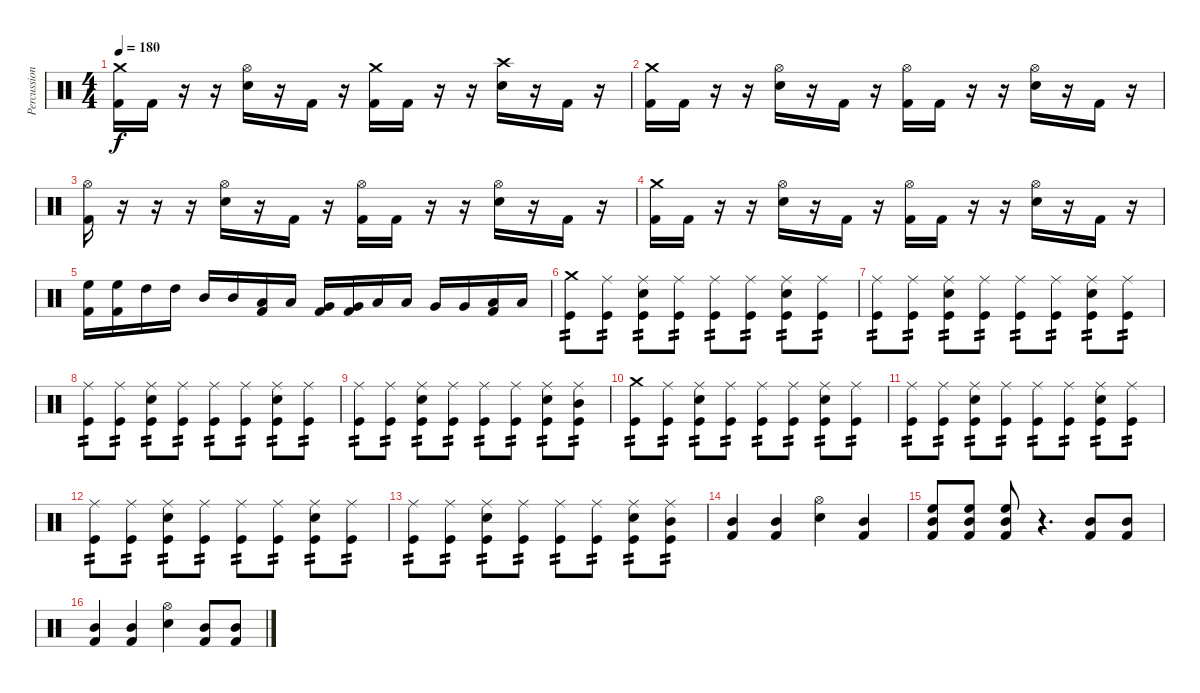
\track ("Percussions" "Percussion") {instrument percussion}
\staff {score}
\articulation defaults
\ts (4 4)
\tempo 180
\clef neutral
\ks c
("Kick (hit) 2" "Crash medium (hit)").16{dy f} "Kick (hit) 2".16 r.16 r.16 ("Snare (hit) 2" "Hi-Hat (open)").16 r.16 "Kick (hit) 2".16 r.16 ("Kick (hit) 2" "Crash medium (hit)").16 "Kick (hit) 2".16 r.16 r.16 ("Snare (hit) 2" "Crash high (hit)").16 r.16 "Kick (hit) 2".16 r.16 |
("Kick (hit) 2" "Crash medium (hit)").16 "Kick (hit) 2".16 r.16 r.16 ("Snare (hit) 2" "Hi-Hat (open)").16 r.16 "Kick (hit) 2".16 r.16 ("Kick (hit) 2" "Hi-Hat (open)").16 "Kick (hit) 2".16 r.16 r.16 ("Snare (hit) 2" "Hi-Hat (open)").16 r.16 "Kick (hit) 2".16 r.16 |
("Kick (hit) 2" "Hi-Hat (open)").16 r.16 r.16 r.16 ("Snare (hit) 2" "Hi-Hat (open)").16 r.16 "Kick (hit) 2".16 r.16 ("Kick (hit) 2" "Hi-Hat (open)").16 "Kick (hit) 2".16 r.16 r.16 ("Snare (hit) 2" "Hi-Hat (open)").16 r.16 "Kick (hit) 2".16 r.16 |
("Kick (hit) 2" "Crash medium (hit)").16 "Kick (hit) 2".16 r.16 r.16 ("Snare (hit) 2" "Hi-Hat (open)").16 r.16 "Kick (hit) 2".16 r.16 ("Kick (hit) 2" "Hi-Hat (open)").16 "Kick (hit) 2".16 r.16 r.16 ("Snare (hit) 2" "Hi-Hat (open)").16 r.16 "Kick (hit) 2".16 r.16 |
("Kick (hit) 2" "High Floor Tom (hit)").16 ("Kick (hit) 2" "High Floor Tom (hit)").16 "High Tom (hit)".16 "High Tom (hit)".16 "Mid Tom (hit)".16 "Mid Tom (hit)".16 ("Kick (hit) 2" "Low Tom (hit)").16 "Low Tom (hit)".16 ("Kick (hit) 2" "Very Low Tom (hit)").16 ("Kick (hit) 2" "Very Low Tom (hit)").16 "Low Floor Tom (hit)".16 "Low Floor Tom (hit)".16 "Very Low Tom (hit)".16 "Very Low Tom (hit)".16 ("Kick (hit) 2" "Low Tom (hit)").16 "Low Tom (hit)".16 |
("Crash medium (hit)" "Kick (hit)").8{tp 2} ("Ride (middle)" "Kick (hit)").8{tp 2} ("Ride (middle)" "Electric Snare (hit)" "Kick (hit)").8{tp 2} ("Ride (middle)" "Kick (hit)").8{tp 2} ("Ride (middle)" "Kick (hit)").8{tp 2} ("Ride (middle)" "Kick (hit)").8{tp 2} ("Ride (middle)" "Electric Snare (hit)" "Kick (hit)").8{tp 2} ("Ride (middle)" "Kick (hit)").8{tp 2} |
("Ride (middle)" "Kick (hit)").8{tp 2} ("Ride (middle)" "Kick (hit)").8{tp 2} ("Ride (middle)" "Electric Snare (hit)" "Kick (hit)").8{tp 2} ("Ride (middle)" "Kick (hit)").8{tp 2} ("Ride (middle)" "Kick (hit)").8{tp 2} ("Ride (middle)" "Kick (hit)").8{tp 2} ("Ride (middle)" "Electric Snare (hit)" "Kick (hit)").8{tp 2} ("Ride (middle)" "Kick (hit)").8{tp 2} |
("Ride (middle)" "Kick (hit)").8{tp 2} ("Ride (middle)" "Kick (hit)").8{tp 2} ("Ride (middle)" "Electric Snare (hit)" "Kick (hit)").8{tp 2} ("Ride (middle)" "Kick (hit)").8{tp 2} ("Ride (middle)" "Kick (hit)").8{tp 2} ("Ride (middle)" "Kick (hit)").8{tp 2} ("Ride (middle)" "Electric Snare (hit)" "Kick (hit)").8{tp 2} ("Ride (middle)" "Kick (hit)").8{tp 2} |
("Ride (middle)" "Kick (hit)").8{tp 2} ("Ride (middle)" "Kick (hit)").8{tp 2} ("Ride (middle)" "Electric Snare (hit)" "Kick (hit)").8{tp 2} ("Ride (middle)" "Kick (hit)").8{tp 2} ("Ride (middle)" "Kick (hit)").8{tp 2} ("Ride (middle)" "Kick (hit)").8{tp 2} ("Ride (middle)" "Electric Snare (hit)" "Kick (hit)").8{tp 2} ("Ride (middle)" "Mid Tom (hit)" "Kick (hit)").8{tp 2} |
("Crash medium (hit)" "Kick (hit)").8{tp 2} ("Ride (middle)" "Kick (hit)").8{tp 2} ("Ride (middle)" "Electric Snare (hit)" "Kick (hit)").8{tp 2} ("Ride (middle)" "Kick (hit)").8{tp 2} ("Ride (middle)" "Kick (hit)").8{tp 2} ("Ride (middle)" "Kick (hit)").8{tp 2} ("Ride (middle)" "Electric Snare (hit)" "Kick (hit)").8{tp 2} ("Ride (middle)" "Kick (hit)").8{tp 2} |
("Ride (middle)" "Kick (hit)").8{tp 2} ("Ride (middle)" "Kick (hit)").8{tp 2} ("Ride (middle)" "Electric Snare (hit)" "Kick (hit)").8{tp 2} ("Ride (middle)" "Kick (hit)").8{tp 2} ("Ride (middle)" "Kick (hit)").8{tp 2} ("Ride (middle)" "Kick (hit)").8{tp 2} ("Ride (middle)" "Electric Snare (hit)" "Kick (hit)").8{tp 2} ("Ride (middle)" "Kick (hit)").8{tp 2} |
("Ride (middle)" "Kick (hit)").8{tp 2} ("Ride (middle)" "Kick (hit)").8{tp 2} ("Ride (middle)" "Electric Snare (hit)" "Kick (hit)").8{tp 2} ("Ride (middle)" "Kick (hit)").8{tp 2} ("Ride (middle)" "Kick (hit)").8{tp 2} ("Ride (middle)" "Kick (hit)").8{tp 2} ("Ride (middle)" "Electric Snare (hit)" "Kick (hit)").8{tp 2} ("Ride (middle)" "Kick (hit)").8{tp 2} |
("Ride (middle)" "Kick (hit)").8{tp 2} ("Ride (middle)" "Kick (hit)").8{tp 2} ("Ride (middle)" "Electric Snare (hit)" "Kick (hit)").8{tp 2} ("Ride (middle)" "Kick (hit)").8{tp 2} ("Ride (middle)" "Kick (hit)").8{tp 2} ("Ride (middle)" "Kick (hit)").8{tp 2} ("Ride (middle)" "Electric Snare (hit)" "Kick (hit)").8{tp 2} ("Ride (middle)" "Mid Tom (hit)" "Kick (hit)").8{tp 2} |
("Kick (hit) 2" "Mid Tom (hit)").4 ("Kick (hit) 2" "Mid Tom (hit)").4 ("Electric Snare (hit)" "Hi-Hat (open)").4 ("Kick (hit) 2" "Mid Tom (hit)").4 |
("Kick (hit) 2" "Mid Tom (hit)" "High Floor Tom (hit)").8 ("Kick (hit) 2" "Mid Tom (hit)" "High Floor Tom (hit)").8 ("Kick (hit) 2" "Mid Tom (hit)" "High Floor Tom (hit)").8 r.4{d} ("Kick (hit) 2" "Mid Tom (hit)").8 ("Kick (hit) 2" "Mid Tom (hit)").8 |
("Kick (hit) 2" "Mid Tom (hit)").4 ("Kick (hit) 2" "Mid Tom (hit)").4 ("Electric Snare (hit)" "Hi-Hat (open)").4 ("Kick (hit) 2" "Mid Tom (hit)").8 ("Kick (hit) 2" "Mid Tom (hit)").8
